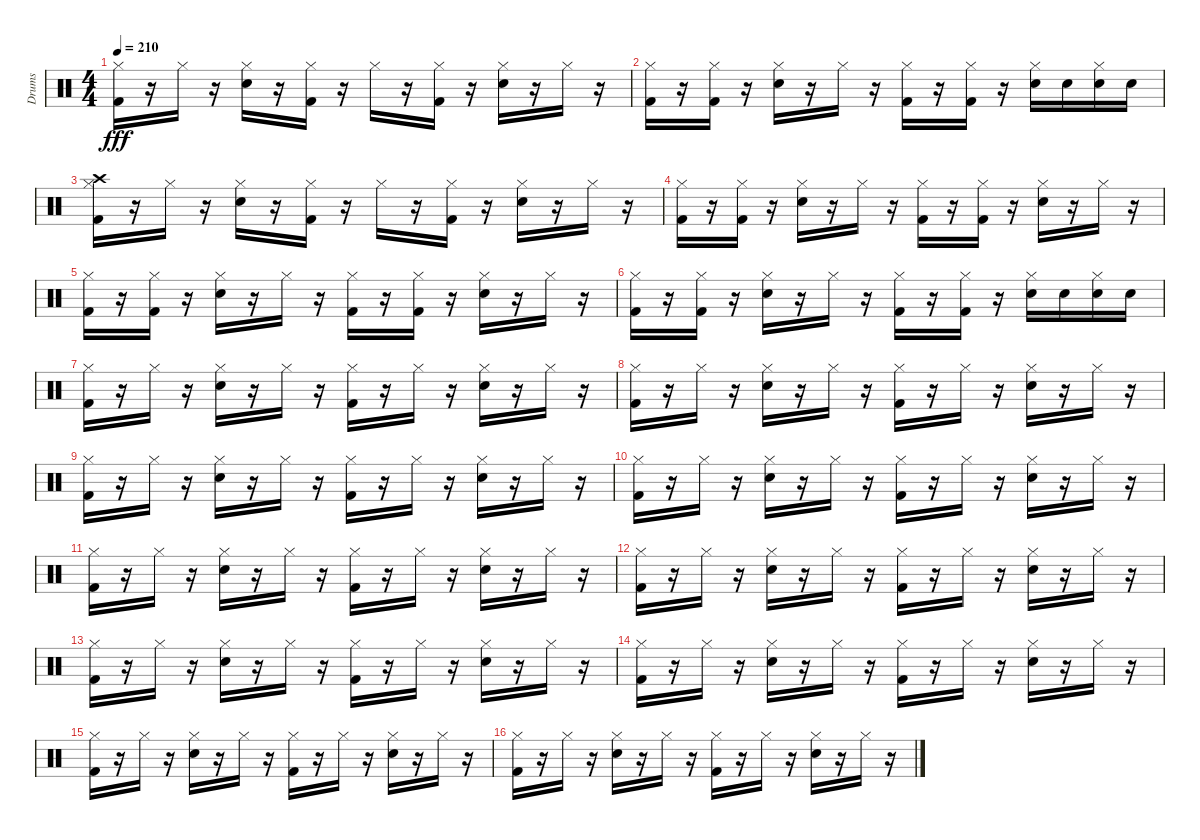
\track ("Drums" "Drums") {instrument percussion}
\staff {score}
\articulation defaults
\ts (4 4)
\tempo 210
\clef neutral
\ks c
("Hi-Hat (closed)" "Kick (hit) 2").16{dy fff} r.16 "Hi-Hat (closed)".16 r.16 ("Snare (hit) 2" "Hi-Hat (closed)").16 r.16 ("Kick (hit) 2" "Hi-Hat (closed)").16 r.16 "Hi-Hat (closed)".16 r.16 ("Kick (hit) 2" "Hi-Hat (closed)").16 r.16 ("Snare (hit) 2" "Hi-Hat (closed)").16 r.16 "Hi-Hat (closed)".16 r.16 |
("Hi-Hat (closed)" "Kick (hit) 2").16 r.16 ("Kick (hit) 2" "Hi-Hat (closed)").16 r.16 ("Snare (hit) 2" "Hi-Hat (closed)").16 r.16 "Hi-Hat (closed)".16 r.16 ("Kick (hit) 2" "Hi-Hat (closed)").16 r.16 ("Kick (hit) 2" "Hi-Hat (closed)").16 r.16 ("Snare (hit) 2" "Hi-Hat (closed)").16 "Snare (hit) 2".16 ("Snare (hit) 2" "Hi-Hat (closed)").16 "Snare (hit) 2".16 |
("Kick (hit) 2" "Hi-Hat (closed)" "Crash high (hit)").16 r.16 "Hi-Hat (closed)".16 r.16 ("Snare (hit) 2" "Hi-Hat (closed)").16 r.16 ("Kick (hit) 2" "Hi-Hat (closed)").16 r.16 "Hi-Hat (closed)".16 r.16 ("Kick (hit) 2" "Hi-Hat (closed)").16 r.16 ("Snare (hit) 2" "Hi-Hat (closed)").16 r.16 "Hi-Hat (closed)".16 r.16 |
("Kick (hit) 2" "Hi-Hat (closed)").16 r.16 ("Hi-Hat (closed)" "Kick (hit) 2").16 r.16 ("Hi-Hat (closed)" "Snare (hit) 2").16 r.16 "Hi-Hat (closed)".16 r.16 ("Kick (hit) 2" "Hi-Hat (closed)").16 r.16 ("Hi-Hat (closed)" "Kick (hit) 2").16 r.16 ("Hi-Hat (closed)" "Snare (hit) 2").16 r.16 "Hi-Hat (closed)".16 r.16 |
("Hi-Hat (closed)" "Kick (hit) 2").16 r.16 ("Hi-Hat (closed)" "Kick (hit) 2").16 r.16 ("Snare (hit) 2" "Hi-Hat (closed)").16 r.16 "Hi-Hat (closed)".16 r.16 ("Kick (hit) 2" "Hi-Hat (closed)").16 r.16 ("Hi-Hat (closed)" "Kick (hit) 2").16 r.16 ("Snare (hit) 2" "Hi-Hat (closed)").16 r.16 "Hi-Hat (closed)".16 r.16 |
("Hi-Hat (closed)" "Kick (hit) 2").16 r.16 ("Hi-Hat (closed)" "Kick (hit) 2").16 r.16 ("Hi-Hat (closed)" "Snare (hit) 2").16 r.16 "Hi-Hat (closed)".16 r.16 ("Hi-Hat (closed)" "Kick (hit) 2").16 r.16 ("Kick (hit) 2" "Hi-Hat (closed)").16 r.16 ("Hi-Hat (closed)" "Snare (hit) 2").16 "Snare (hit) 2".16 ("Hi-Hat (closed)" "Snare (hit) 2").16 "Snare (hit) 2".16 |
("Kick (hit) 2" "Hi-Hat (closed)").16 r.16 "Hi-Hat (closed)".16 r.16 ("Hi-Hat (closed)" "Snare (hit) 2").16 r.16 "Hi-Hat (closed)".16 r.16 ("Hi-Hat (closed)" "Kick (hit) 2").16 r.16 "Hi-Hat (closed)".16 r.16 ("Hi-Hat (closed)" "Snare (hit) 2").16 r.16 "Hi-Hat (closed)".16 r.16 |
("Hi-Hat (closed)" "Kick (hit) 2").16 r.16 "Hi-Hat (closed)".16 r.16 ("Snare (hit) 2" "Hi-Hat (closed)").16 r.16 "Hi-Hat (closed)".16 r.16 ("Kick (hit) 2" "Hi-Hat (closed)").16 r.16 "Hi-Hat (closed)".16 r.16 ("Snare (hit) 2" "Hi-Hat (closed)").16 r.16 "Hi-Hat (closed)".16 r.16 |
("Hi-Hat (closed)" "Kick (hit) 2").16 r.16 "Hi-Hat (closed)".16 r.16 ("Hi-Hat (closed)" "Snare (hit) 2").16 r.16 "Hi-Hat (closed)".16 r.16 ("Kick (hit) 2" "Hi-Hat (closed)").16 r.16 "Hi-Hat (closed)".16 r.16 ("Snare (hit) 2" "Hi-Hat (closed)").16 r.16 "Hi-Hat (closed)".16 r.16 |
("Hi-Hat (closed)" "Kick (hit) 2").16 r.16 "Hi-Hat (closed)".16 r.16 ("Snare (hit) 2" "Hi-Hat (closed)").16 r.16 "Hi-Hat (closed)".16 r.16 ("Hi-Hat (closed)" "Kick (hit) 2").16 r.16 "Hi-Hat (closed)".16 r.16 ("Snare (hit) 2" "Hi-Hat (closed)").16 r.16 "Hi-Hat (closed)".16 r.16 |
("Hi-Hat (closed)" "Kick (hit) 2").16 r.16 "Hi-Hat (closed)".16 r.16 ("Snare (hit) 2" "Hi-Hat (closed)").16 r.16 "Hi-Hat (closed)".16 r.16 ("Kick (hit) 2" "Hi-Hat (closed)").16 r.16 "Hi-Hat (closed)".16 r.16 ("Hi-Hat (closed)" "Snare (hit) 2").16 r.16 "Hi-Hat (closed)".16 r.16 |
("Kick (hit) 2" "Hi-Hat (closed)").16 r.16 "Hi-Hat (closed)".16 r.16 ("Hi-Hat (closed)" "Snare (hit) 2").16 r.16 "Hi-Hat (closed)".16 r.16 ("Hi-Hat (closed)" "Kick (hit) 2").16 r.16 "Hi-Hat (closed)".16 r.16 ("Hi-Hat (closed)" "Snare (hit) 2").16 r.16 "Hi-Hat (closed)".16 r.16 |
("Kick (hit) 2" "Hi-Hat (closed)").16 r.16 "Hi-Hat (closed)".16 r.16 ("Snare (hit) 2" "Hi-Hat (closed)").16 r.16 "Hi-Hat (closed)".16 r.16 ("Kick (hit) 2" "Hi-Hat (closed)").16 r.16 "Hi-Hat (closed)".16 r.16 ("Hi-Hat (closed)" "Snare (hit) 2").16 r.16 "Hi-Hat (closed)".16 r.16 |
("Hi-Hat (closed)" "Kick (hit) 2").16 r.16 "Hi-Hat (closed)".16 r.16 ("Hi-Hat (closed)" "Snare (hit) 2").16 r.16 "Hi-Hat (closed)".16 r.16 ("Kick (hit) 2" "Hi-Hat (closed)").16 r.16 "Hi-Hat (closed)".16 r.16 ("Hi-Hat (closed)" "Snare (hit) 2").16 r.16 "Hi-Hat (closed)".16 r.16 |
("Kick (hit) 2" "Hi-Hat (closed)").16 r.16 "Hi-Hat (closed)".16 r.16 ("Snare (hit) 2" "Hi-Hat (closed)").16 r.16 "Hi-Hat (closed)".16 r.16 ("Hi-Hat (closed)" "Kick (hit) 2").16 r.16 "Hi-Hat (closed)".16 r.16 ("Snare (hit) 2" "Hi-Hat (closed)").16 r.16 "Hi-Hat (closed)".16 r.16 |
("Kick (hit) 2" "Hi-Hat (closed)").16 r.16 "Hi-Hat (closed)".16 r.16 ("Hi-Hat (closed)" "Snare (hit) 2").16 r.16 "Hi-Hat (closed)".16 r.16 ("Hi-Hat (closed)" "Kick (hit) 2").16 r.16 "Hi-Hat (closed)".16 r.16 ("Snare (hit) 2" "Hi-Hat (closed)").16 r.16 "Hi-Hat (closed)".16 r.16
